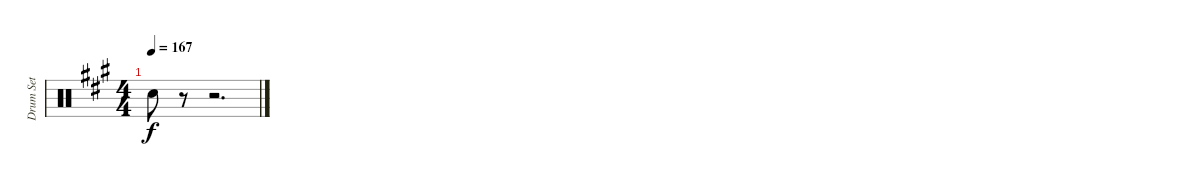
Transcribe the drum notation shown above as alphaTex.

\track ("Drum Set" "Drum Set") {instrument percussion}
\staff {score}
\articulation defaults
\ts (4 4)
\tempo 167
\clef neutral
\ks a "Electric Snare (hit)".8{dy f}
r.8 r.2{d}
